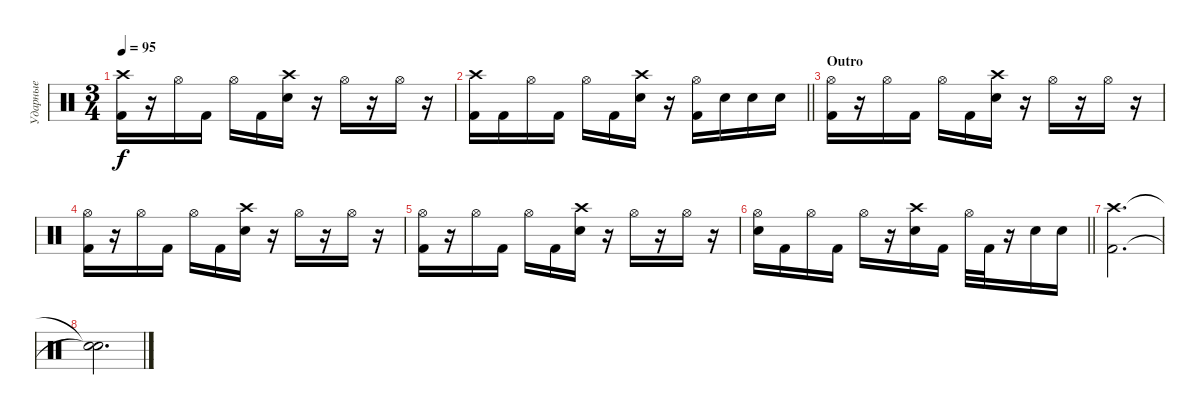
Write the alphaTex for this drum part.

\track ("Ударные" "Ударные") {instrument percussion}
\staff {score}
\articulation defaults
\ts (3 4)
\tempo 95
\clef neutral
\ks c
("Crash high (hit)" "Kick (hit) 2").16{dy f} r.16 "Hi-Hat (open)".16 "Kick (hit) 2".16 "Hi-Hat (open)".16 "Kick (hit) 2".16 ("Crash high (hit)" "Electric Snare (hit)").16 r.16 "Hi-Hat (open)".16 r.16 "Hi-Hat (open)".16 r.16 |
\barLineRight lightlight
("Crash high (hit)" "Kick (hit) 2").16 "Kick (hit) 2".16 "Hi-Hat (open)".16 "Kick (hit) 2".16 "Hi-Hat (open)".16 "Kick (hit) 2".16 ("Crash high (hit)" "Electric Snare (hit)").16 r.16 ("Hi-Hat (open)" "Kick (hit) 2").16 "Electric Snare (hit)".16 "Electric Snare (hit)".16 "Electric Snare (hit)".16 |
\section ("" "Outro")
("Hi-Hat (open)" "Kick (hit) 2").16 r.16 "Hi-Hat (open)".16 "Kick (hit) 2".16 "Hi-Hat (open)".16 "Kick (hit) 2".16 ("Crash high (hit)" "Electric Snare (hit)").16 r.16 "Hi-Hat (open)".16 r.16 "Hi-Hat (open)".16 r.16 |
("Hi-Hat (open)" "Kick (hit) 2").16 r.16 "Hi-Hat (open)".16 "Kick (hit) 2".16 "Hi-Hat (open)".16 "Kick (hit) 2".16 ("Crash high (hit)" "Electric Snare (hit)").16 r.16 "Hi-Hat (open)".16 r.16 "Hi-Hat (open)".16 r.16 |
("Hi-Hat (open)" "Kick (hit) 2").16 r.16 "Hi-Hat (open)".16 "Kick (hit) 2".16 "Hi-Hat (open)".16 "Kick (hit) 2".16 ("Crash high (hit)" "Electric Snare (hit)").16 r.16 "Hi-Hat (open)".16 r.16 "Hi-Hat (open)".16 r.16 |
\barLineRight lightlight
("Hi-Hat (open)" "Electric Snare (hit)").16 "Kick (hit) 2".16 "Hi-Hat (open)".16 "Kick (hit) 2".16 "Hi-Hat (open)".16 r.16 ("Crash high (hit)" "Electric Snare (hit)").16 "Kick (hit) 2".16 "Hi-Hat (open)".32 "Kick (hit) 2".32 r.16 "Electric Snare (hit)".16 "Electric Snare (hit)".16 |
("Crash high (hit)" "Kick (hit) 2").2{d} |
("Snare (hit)"{t} "Snare (hit)"{t}).2{d}
